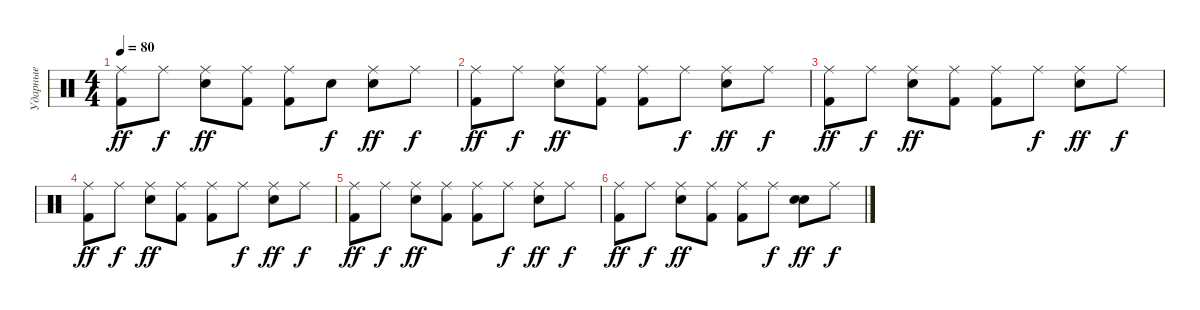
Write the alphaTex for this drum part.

\track ("Ударные" "Ударные") {instrument percussion}
\staff {score}
\articulation defaults
\ts (4 4)
\tempo 80
\clef neutral
\ks c
("Kick (hit) 2" "Ride (middle)").8{dy ff} "Ride (middle)".8{dy f} ("Snare (hit) 2" "Ride (middle)").8{dy ff} ("Kick (hit) 2" "Ride (middle)").8 ("Kick (hit) 2" "Ride (middle)").8 "Snare (hit)".8{dy f} ("Snare (hit) 2" "Ride (middle)").8{dy ff} "Ride (middle)".8{dy f} |
("Kick (hit) 2" "Ride (middle)").8{dy ff} "Ride (middle)".8{dy f} ("Snare (hit) 2" "Ride (middle)").8{dy ff} ("Kick (hit) 2" "Ride (middle)").8 ("Kick (hit) 2" "Ride (middle)").8 "Ride (middle)".8{dy f} ("Snare (hit) 2" "Ride (middle)").8{dy ff} "Ride (middle)".8{dy f} |
("Kick (hit) 2" "Ride (middle)").8{dy ff volume 0} "Ride (middle)".8{dy f} ("Snare (hit) 2" "Ride (middle)").8{dy ff} ("Kick (hit) 2" "Ride (middle)").8 ("Kick (hit) 2" "Ride (middle)").8 "Ride (middle)".8{dy f} ("Snare (hit) 2" "Ride (middle)").8{dy ff} "Ride (middle)".8{dy f} |
("Kick (hit) 2" "Ride (middle)").8{dy ff} "Ride (middle)".8{dy f} ("Snare (hit) 2" "Ride (middle)").8{dy ff} ("Kick (hit) 2" "Ride (middle)").8 ("Kick (hit) 2" "Ride (middle)").8 "Ride (middle)".8{dy f} ("Snare (hit) 2" "Ride (middle)").8{dy ff} "Ride (middle)".8{dy f} |
("Kick (hit) 2" "Ride (middle)").8{dy ff} "Ride (middle)".8{dy f} ("Snare (hit) 2" "Ride (middle)").8{dy ff} ("Kick (hit) 2" "Ride (middle)").8 ("Kick (hit) 2" "Ride (middle)").8 "Ride (middle)".8{dy f} ("Snare (hit) 2" "Ride (middle)").8{dy ff} "Ride (middle)".8{dy f} |
("Kick (hit) 2" "Ride (middle)").8{dy ff} "Ride (middle)".8{dy f} ("Snare (hit) 2" "Ride (middle)").8{dy ff} ("Kick (hit) 2" "Ride (middle)").8 ("Kick (hit) 2" "Ride (middle)").8 "Ride (middle)".8{dy f} ("Snare (hit) 2" "Snare (hit)").8{dy ff} "Ride (middle)".8{dy f}
